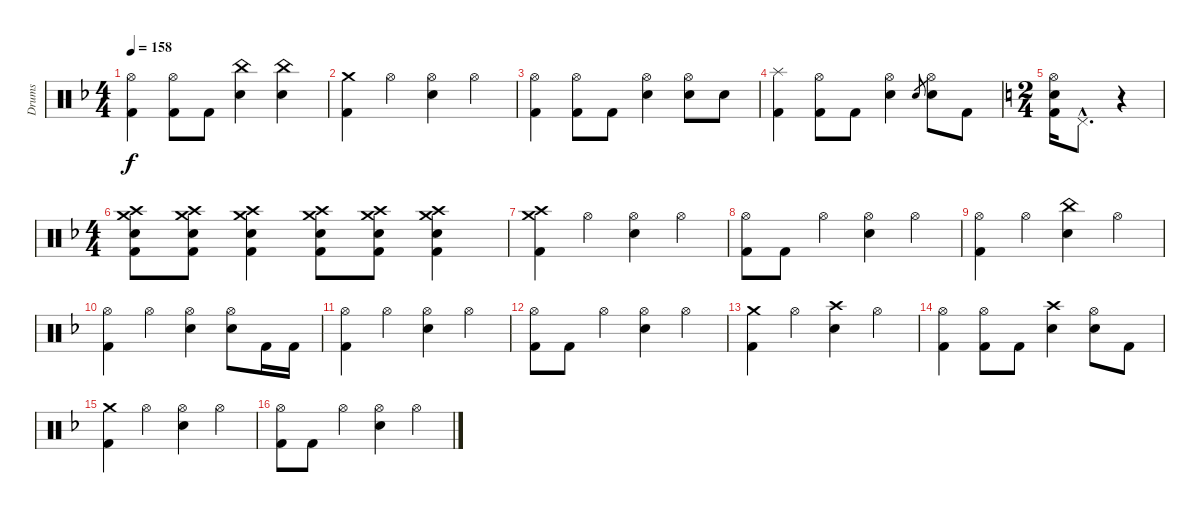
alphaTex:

\track ("Drums" "Drums") {instrument percussion}
\staff {score}
\articulation defaults
\ts (4 4)
\tempo 158
\clef neutral
\ks f
("Hi-Hat (open)" "Kick (hit) 2").4{dy f} ("Hi-Hat (open)" "Kick (hit) 2").8 "Kick (hit) 2".8 ("China (hit)" "Snare (hit) 2").4 ("China (hit)" "Snare (hit) 2").4 |
("Crash medium (hit)" "Kick (hit) 2").4 "Hi-Hat (open)".4 ("Hi-Hat (open)" "Snare (hit) 2").4 "Hi-Hat (open)".4 |
("Hi-Hat (open)" "Kick (hit) 2").4 ("Hi-Hat (open)" "Kick (hit) 2").8 "Kick (hit) 2".8 ("Hi-Hat (open)" "Snare (hit) 2").4 ("Hi-Hat (open)" "Snare (hit) 2").8 "Snare (hit) 2".8 |
("Splash (hit)" "Kick (hit) 2").4 ("Hi-Hat (open)" "Kick (hit) 2").8 "Kick (hit) 2".8 ("Hi-Hat (open)" "Snare (hit) 2").4 "Snare (hit) 2".8{gr} ("Hi-Hat (open)" "Snare (hit) 2").8 "Kick (hit) 2".8 |
\ts (2 4)
\ks c
("Hi-Hat (open)" "Snare (hit) 2" "Kick (hit) 2").16 "Pedal Hi-Hat (hit)"{hac}.8{d} r.4 |
\ts (4 4)
\ks f
("Crash medium (hit)" "Crash high (hit)" "Snare (hit) 2" "Kick (hit) 2").8 ("Crash medium (hit)" "Crash high (hit)" "Snare (hit) 2" "Kick (hit) 2").8 ("Crash medium (hit)" "Crash high (hit)" "Snare (hit) 2" "Kick (hit) 2").4 ("Crash medium (hit)" "Crash high (hit)" "Snare (hit) 2" "Kick (hit) 2").8 ("Crash medium (hit)" "Crash high (hit)" "Snare (hit) 2" "Kick (hit) 2").8 ("Crash medium (hit)" "Crash high (hit)" "Snare (hit) 2" "Kick (hit) 2").4 |
("Crash medium (hit)" "Crash high (hit)" "Kick (hit) 2").4 "Hi-Hat (open)".4 ("Hi-Hat (open)" "Snare (hit) 2").4 "Hi-Hat (open)".4 |
("Hi-Hat (open)" "Kick (hit) 2").8 "Kick (hit) 2".8 "Hi-Hat (open)".4 ("Hi-Hat (open)" "Snare (hit) 2").4 "Hi-Hat (open)".4 |
("Hi-Hat (open)" "Kick (hit) 2").4 "Hi-Hat (open)".4 ("China (hit)" "Snare (hit) 2").4 "Hi-Hat (open)".4 |
("Hi-Hat (open)" "Kick (hit) 2").4 "Hi-Hat (open)".4 ("Hi-Hat (open)" "Snare (hit) 2").4 ("Hi-Hat (open)" "Snare (hit) 2").8 "Kick (hit) 2".16 "Kick (hit) 2".16 |
("Hi-Hat (open)" "Kick (hit) 2").4 "Hi-Hat (open)".4 ("Hi-Hat (open)" "Snare (hit) 2").4 "Hi-Hat (open)".4 |
("Hi-Hat (open)" "Kick (hit) 2").8 "Kick (hit) 2".8 "Hi-Hat (open)".4 ("Hi-Hat (open)" "Snare (hit) 2").4 "Hi-Hat (open)".4 |
("Crash medium (hit)" "Kick (hit) 2").4 "Hi-Hat (open)".4 ("Crash high (hit)" "Snare (hit) 2").4 "Hi-Hat (open)".4 |
("Hi-Hat (open)" "Kick (hit) 2").4 ("Hi-Hat (open)" "Kick (hit) 2").8 "Kick (hit) 2".8 ("Crash high (hit)" "Snare (hit) 2").4 ("Hi-Hat (open)" "Snare (hit) 2").8 "Kick (hit) 2".8 |
("Crash medium (hit)" "Kick (hit) 2").4 "Hi-Hat (open)".4 ("Hi-Hat (open)" "Snare (hit) 2").4 "Hi-Hat (open)".4 |
("Hi-Hat (open)" "Kick (hit) 2").8 "Kick (hit) 2".8 "Hi-Hat (open)".4 ("Hi-Hat (open)" "Snare (hit) 2").4 "Hi-Hat (open)".4
